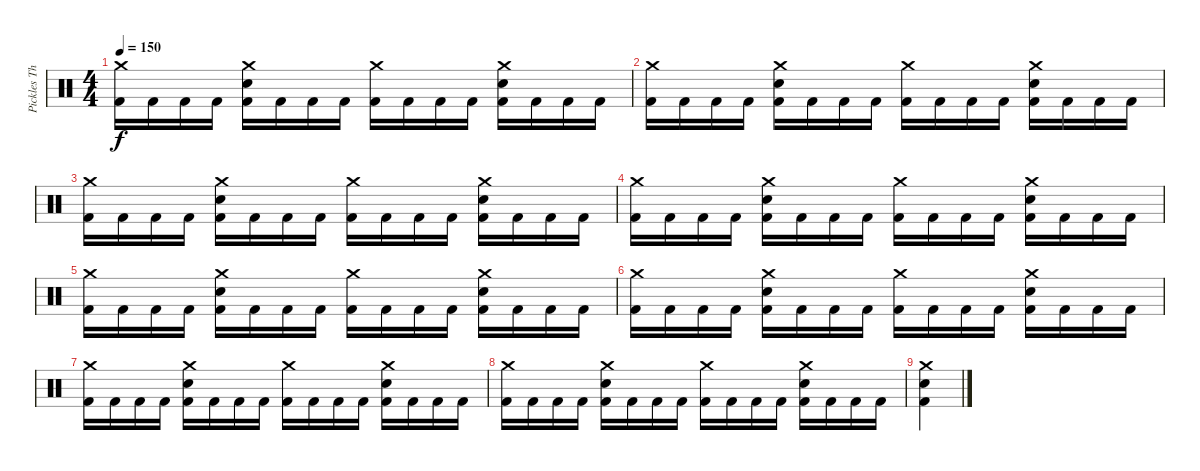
\track ("Pickles The Drummer" "Pickles Th") {instrument percussion}
\staff {score}
\articulation defaults
\ts (4 4)
\tempo 150
\clef neutral
\ks c
("Crash medium (hit)" "Kick (hit) 2").16{dy f} "Kick (hit) 2".16 "Kick (hit) 2".16 "Kick (hit) 2".16 ("Crash medium (hit)" "Snare (hit) 2" "Kick (hit) 2").16 "Kick (hit) 2".16 "Kick (hit) 2".16 "Kick (hit) 2".16 ("Crash medium (hit)" "Kick (hit) 2").16 "Kick (hit) 2".16 "Kick (hit) 2".16 "Kick (hit) 2".16 ("Crash medium (hit)" "Snare (hit) 2" "Kick (hit) 2").16 "Kick (hit) 2".16 "Kick (hit) 2".16 "Kick (hit) 2".16 |
("Crash medium (hit)" "Kick (hit) 2").16 "Kick (hit) 2".16 "Kick (hit) 2".16 "Kick (hit) 2".16 ("Crash medium (hit)" "Snare (hit) 2" "Kick (hit) 2").16 "Kick (hit) 2".16 "Kick (hit) 2".16 "Kick (hit) 2".16 ("Crash medium (hit)" "Kick (hit) 2").16 "Kick (hit) 2".16 "Kick (hit) 2".16 "Kick (hit) 2".16 ("Crash medium (hit)" "Snare (hit) 2" "Kick (hit) 2").16 "Kick (hit) 2".16 "Kick (hit) 2".16 "Kick (hit) 2".16 |
("Crash medium (hit)" "Kick (hit) 2").16 "Kick (hit) 2".16 "Kick (hit) 2".16 "Kick (hit) 2".16 ("Crash medium (hit)" "Snare (hit) 2" "Kick (hit) 2").16 "Kick (hit) 2".16 "Kick (hit) 2".16 "Kick (hit) 2".16 ("Crash medium (hit)" "Kick (hit) 2").16 "Kick (hit) 2".16 "Kick (hit) 2".16 "Kick (hit) 2".16 ("Crash medium (hit)" "Snare (hit) 2" "Kick (hit) 2").16 "Kick (hit) 2".16 "Kick (hit) 2".16 "Kick (hit) 2".16 |
("Crash medium (hit)" "Kick (hit) 2").16 "Kick (hit) 2".16 "Kick (hit) 2".16 "Kick (hit) 2".16 ("Crash medium (hit)" "Snare (hit) 2" "Kick (hit) 2").16 "Kick (hit) 2".16 "Kick (hit) 2".16 "Kick (hit) 2".16 ("Crash medium (hit)" "Kick (hit) 2").16 "Kick (hit) 2".16 "Kick (hit) 2".16 "Kick (hit) 2".16 ("Crash medium (hit)" "Snare (hit) 2" "Kick (hit) 2").16 "Kick (hit) 2".16 "Kick (hit) 2".16 "Kick (hit) 2".16 |
("Crash medium (hit)" "Kick (hit) 2").16 "Kick (hit) 2".16 "Kick (hit) 2".16 "Kick (hit) 2".16 ("Crash medium (hit)" "Snare (hit) 2" "Kick (hit) 2").16 "Kick (hit) 2".16 "Kick (hit) 2".16 "Kick (hit) 2".16 ("Crash medium (hit)" "Kick (hit) 2").16 "Kick (hit) 2".16 "Kick (hit) 2".16 "Kick (hit) 2".16 ("Crash medium (hit)" "Snare (hit) 2" "Kick (hit) 2").16 "Kick (hit) 2".16 "Kick (hit) 2".16 "Kick (hit) 2".16 |
("Crash medium (hit)" "Kick (hit) 2").16 "Kick (hit) 2".16 "Kick (hit) 2".16 "Kick (hit) 2".16 ("Crash medium (hit)" "Snare (hit) 2" "Kick (hit) 2").16 "Kick (hit) 2".16 "Kick (hit) 2".16 "Kick (hit) 2".16 ("Crash medium (hit)" "Kick (hit) 2").16 "Kick (hit) 2".16 "Kick (hit) 2".16 "Kick (hit) 2".16 ("Crash medium (hit)" "Snare (hit) 2" "Kick (hit) 2").16 "Kick (hit) 2".16 "Kick (hit) 2".16 "Kick (hit) 2".16 |
("Crash medium (hit)" "Kick (hit) 2").16 "Kick (hit) 2".16 "Kick (hit) 2".16 "Kick (hit) 2".16 ("Crash medium (hit)" "Snare (hit) 2" "Kick (hit) 2").16 "Kick (hit) 2".16 "Kick (hit) 2".16 "Kick (hit) 2".16 ("Crash medium (hit)" "Kick (hit) 2").16 "Kick (hit) 2".16 "Kick (hit) 2".16 "Kick (hit) 2".16 ("Crash medium (hit)" "Snare (hit) 2" "Kick (hit) 2").16 "Kick (hit) 2".16 "Kick (hit) 2".16 "Kick (hit) 2".16 |
("Crash medium (hit)" "Kick (hit) 2").16 "Kick (hit) 2".16 "Kick (hit) 2".16 "Kick (hit) 2".16 ("Crash medium (hit)" "Snare (hit) 2" "Kick (hit) 2").16 "Kick (hit) 2".16 "Kick (hit) 2".16 "Kick (hit) 2".16 ("Crash medium (hit)" "Kick (hit) 2").16 "Kick (hit) 2".16 "Kick (hit) 2".16 "Kick (hit) 2".16 ("Crash medium (hit)" "Snare (hit) 2" "Kick (hit) 2").16 "Kick (hit) 2".16 "Kick (hit) 2".16 "Kick (hit) 2".16 |
("Crash medium (hit)" "Snare (hit) 2" "Kick (hit) 2").4
